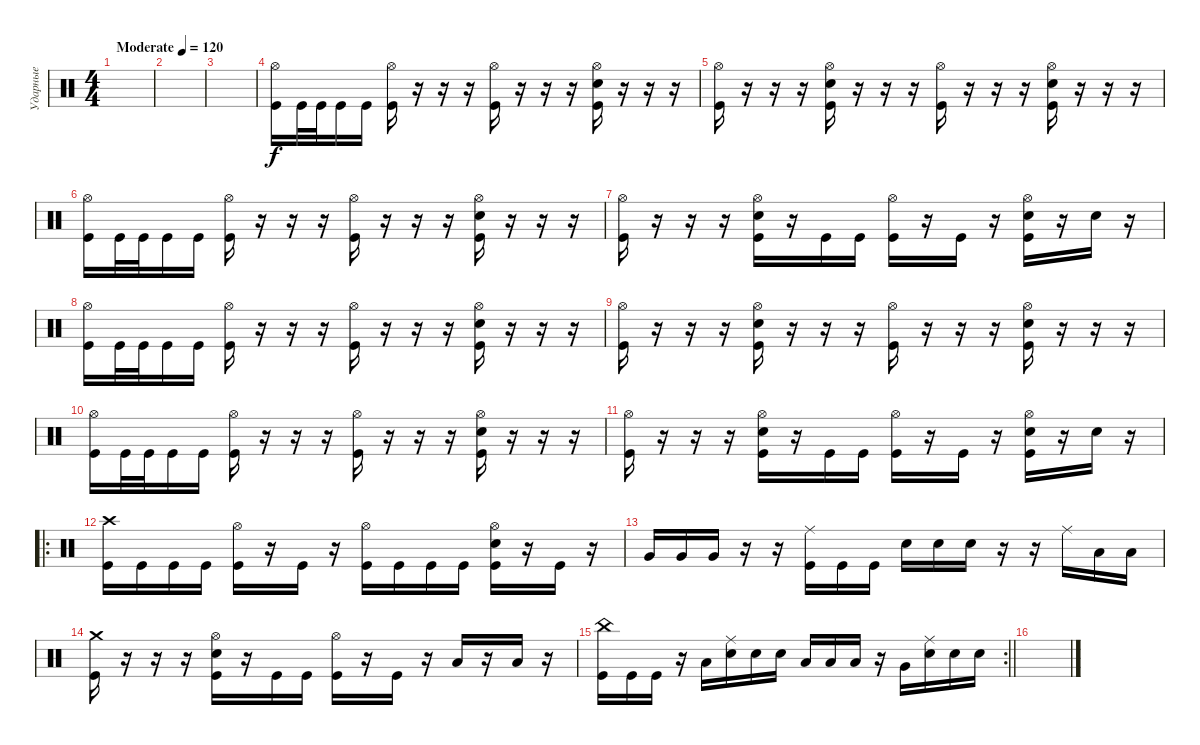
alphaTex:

\track ("Ударные" "Ударные") {instrument percussion}
\staff {score}
\articulation defaults
\ts (4 4)
\tempo (120 "Moderate")
\clef neutral
\ks c
|
|
|
("Hi-Hat (open)" "Kick (hit)").16 "Kick (hit)".32 "Kick (hit)".32 "Kick (hit)".16 "Kick (hit)".16 ("Hi-Hat (open)" "Kick (hit)").16 r.16 r.16 r.16 ("Hi-Hat (open)" "Kick (hit)").16 r.16 r.16 r.16 ("Hi-Hat (open)" "Electric Snare (hit)" "Kick (hit)").16 r.16 r.16 r.16 |
("Hi-Hat (open)" "Kick (hit)").16 r.16 r.16 r.16 ("Hi-Hat (open)" "Electric Snare (hit)" "Kick (hit)").16 r.16 r.16 r.16 ("Hi-Hat (open)" "Kick (hit)").16 r.16 r.16 r.16 ("Hi-Hat (open)" "Electric Snare (hit)" "Kick (hit)").16 r.16 r.16 r.16 |
("Hi-Hat (open)" "Kick (hit)").16 "Kick (hit)".32 "Kick (hit)".32 "Kick (hit)".16 "Kick (hit)".16 ("Hi-Hat (open)" "Kick (hit)").16 r.16 r.16 r.16 ("Hi-Hat (open)" "Kick (hit)").16 r.16 r.16 r.16 ("Hi-Hat (open)" "Electric Snare (hit)" "Kick (hit)").16 r.16 r.16 r.16 |
("Hi-Hat (open)" "Kick (hit)").16 r.16 r.16 r.16 ("Hi-Hat (open)" "Electric Snare (hit)" "Kick (hit)").16 r.16 "Kick (hit)".16 "Kick (hit)".16 ("Hi-Hat (open)" "Kick (hit)").16 r.16 "Kick (hit)".16 r.16 ("Hi-Hat (open)" "Electric Snare (hit)" "Kick (hit)").16 r.16 "Electric Snare (hit)".16 r.16 |
("Hi-Hat (open)" "Kick (hit)").16 "Kick (hit)".32 "Kick (hit)".32 "Kick (hit)".16 "Kick (hit)".16 ("Hi-Hat (open)" "Kick (hit)").16 r.16 r.16 r.16 ("Hi-Hat (open)" "Kick (hit)").16 r.16 r.16 r.16 ("Hi-Hat (open)" "Electric Snare (hit)" "Kick (hit)").16 r.16 r.16 r.16 |
("Hi-Hat (open)" "Kick (hit)").16 r.16 r.16 r.16 ("Hi-Hat (open)" "Electric Snare (hit)" "Kick (hit)").16 r.16 r.16 r.16 ("Hi-Hat (open)" "Kick (hit)").16 r.16 r.16 r.16 ("Hi-Hat (open)" "Electric Snare (hit)" "Kick (hit)").16 r.16 r.16 r.16 |
("Hi-Hat (open)" "Kick (hit)").16 "Kick (hit)".32 "Kick (hit)".32 "Kick (hit)".16 "Kick (hit)".16 ("Hi-Hat (open)" "Kick (hit)").16 r.16 r.16 r.16 ("Hi-Hat (open)" "Kick (hit)").16 r.16 r.16 r.16 ("Hi-Hat (open)" "Electric Snare (hit)" "Kick (hit)").16 r.16 r.16 r.16 |
("Hi-Hat (open)" "Kick (hit)").16 r.16 r.16 r.16 ("Hi-Hat (open)" "Electric Snare (hit)" "Kick (hit)").16 r.16 "Kick (hit)".16 "Kick (hit)".16 ("Hi-Hat (open)" "Kick (hit)").16 r.16 "Kick (hit)".16 r.16 ("Hi-Hat (open)" "Electric Snare (hit)" "Kick (hit)").16 r.16 "Electric Snare (hit)".16 r.16 |
\ro
\section ("" " ")
("Crash high (hit)" "Kick (hit)").16 "Kick (hit)".16 "Kick (hit)".16 "Kick (hit)".16 ("Hi-Hat (open)" "Kick (hit)").16 r.16 "Kick (hit)".16 r.16 ("Hi-Hat (open)" "Kick (hit)").16 "Kick (hit)".16 "Kick (hit)".16 "Kick (hit)".16 ("Hi-Hat (open)" "Electric Snare (hit)" "Kick (hit)").16 r.16 "Kick (hit)".16 r.16 |
"Very Low Tom (hit)".16 "Very Low Tom (hit)".16 "Very Low Tom (hit)".16 r.16 r.16 ("Ride (middle)" "Kick (hit)").16 "Kick (hit)".16 "Kick (hit)".16 "Electric Snare (hit)".16 "Electric Snare (hit)".16 "Electric Snare (hit)".16 r.16 r.16 "Ride (middle)".16 "Low Tom (hit)".16 "Low Tom (hit)".16 |
("Crash medium (hit)" "Kick (hit)").16 r.16 r.16 r.16 ("Hi-Hat (open)" "Electric Snare (hit)" "Kick (hit)").16 r.16 "Kick (hit)".16 "Kick (hit)".16 ("Hi-Hat (open)" "Kick (hit)").16 r.16 "Kick (hit)".16 r.16 "Low Tom (hit)".16 r.16 "Low Tom (hit)".16 r.16 |
\rc 2
\barLineRight lightlight
("China (hit)" "Kick (hit)").16 "Kick (hit)".16 "Kick (hit)".16 r.16 "Low Tom (hit)".16 ("Ride (middle)" "Electric Snare (hit)").16 "Electric Snare (hit)".16 "Electric Snare (hit)".16 "Low Floor Tom (hit)".16 "Low Floor Tom (hit)".16 "Low Floor Tom (hit)".16 r.16 "Very Low Tom (hit)".16 ("Ride (middle)" "Electric Snare (hit)").16 "Electric Snare (hit)".16 "Electric Snare (hit)".16 |
\section ("" " ")
